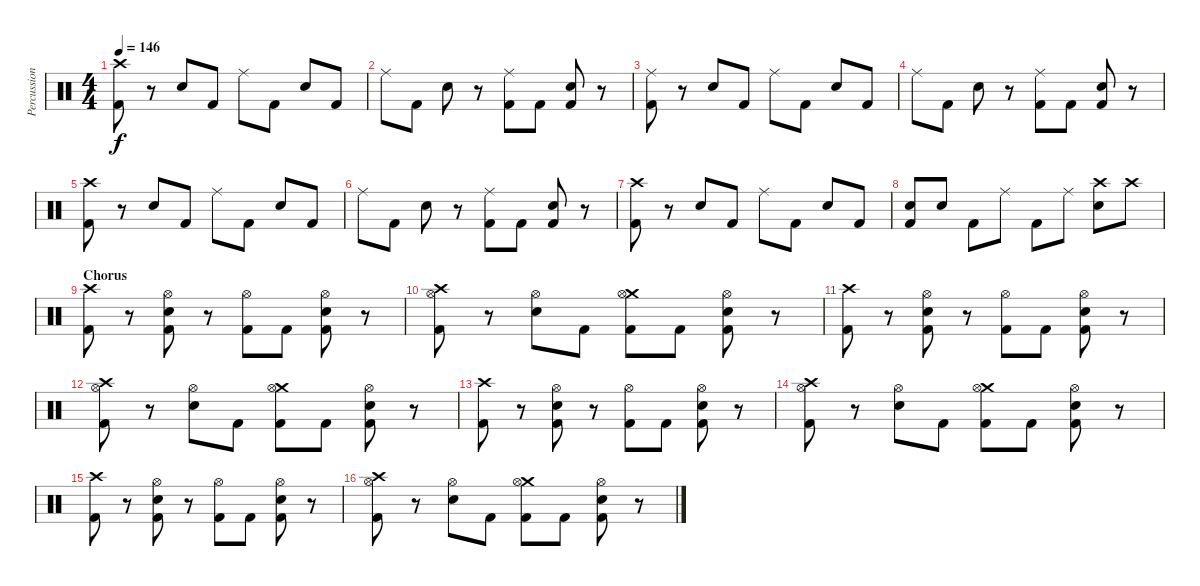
\track ("Percussion" "Percussion") {instrument percussion}
\staff {score}
\articulation defaults
\ts (4 4)
\tempo 146
\clef neutral
\ks c
("Crash high (hit)" "Kick (hit) 2").8{dy f} r.8 "Electric Snare (hit)".8 "Kick (hit) 2".8 "Ride (middle)".8 "Kick (hit) 2".8 "Electric Snare (hit)".8 "Kick (hit) 2".8 |
"Ride (middle)".8 "Kick (hit) 2".8 "Electric Snare (hit)".8 r.8 ("Ride (middle)" "Kick (hit) 2").8 "Kick (hit) 2".8 ("Electric Snare (hit)" "Kick (hit) 2").8 r.8 |
("Ride (middle)" "Kick (hit) 2").8 r.8 "Electric Snare (hit)".8 "Kick (hit) 2".8 "Ride (middle)".8 "Kick (hit) 2".8 "Electric Snare (hit)".8 "Kick (hit) 2".8 |
"Ride (middle)".8 "Kick (hit) 2".8 "Electric Snare (hit)".8 r.8 ("Ride (middle)" "Kick (hit) 2").8 "Kick (hit) 2".8 ("Electric Snare (hit)" "Kick (hit) 2").8 r.8 |
("Crash high (hit)" "Kick (hit) 2").8 r.8 "Electric Snare (hit)".8 "Kick (hit) 2".8 "Ride (middle)".8 "Kick (hit) 2".8 "Electric Snare (hit)".8 "Kick (hit) 2".8 |
"Ride (middle)".8 "Kick (hit) 2".8 "Electric Snare (hit)".8 r.8 ("Ride (middle)" "Kick (hit) 2").8 "Kick (hit) 2".8 ("Electric Snare (hit)" "Kick (hit) 2").8 r.8 |
("Crash high (hit)" "Kick (hit) 2").8 r.8 "Electric Snare (hit)".8 "Kick (hit) 2".8 "Ride (middle)".8 "Kick (hit) 2".8 "Electric Snare (hit)".8 "Kick (hit) 2".8 |
("Electric Snare (hit)" "Kick (hit) 2").8 "Electric Snare (hit)".8 "Kick (hit) 2".8 "Ride (middle)".8 "Kick (hit) 2".8 "Ride (middle)".8 ("Crash high (hit)" "Electric Snare (hit)").8 "Crash high (hit)".8 |
\section ("" "Chorus")
("Crash high (hit)" "Kick (hit) 2").8 r.8 ("Hi-Hat (open)" "Electric Snare (hit)" "Kick (hit) 2").8 r.8 ("Hi-Hat (open)" "Kick (hit) 2").8 "Kick (hit) 2".8 ("Hi-Hat (open)" "Electric Snare (hit)" "Kick (hit) 2").8 r.8 |
("Crash high (hit)" "Hi-Hat (open)" "Kick (hit) 2").8 r.8 ("Hi-Hat (open)" "Electric Snare (hit)").8 "Kick (hit) 2".8 ("Crash medium (hit)" "Hi-Hat (open)" "Kick (hit) 2").8 "Kick (hit) 2".8 ("Hi-Hat (open)" "Electric Snare (hit)" "Kick (hit) 2").8 r.8 |
("Crash high (hit)" "Kick (hit) 2").8 r.8 ("Hi-Hat (open)" "Electric Snare (hit)" "Kick (hit) 2").8 r.8 ("Hi-Hat (open)" "Kick (hit) 2").8 "Kick (hit) 2".8 ("Hi-Hat (open)" "Electric Snare (hit)" "Kick (hit) 2").8 r.8 |
("Crash high (hit)" "Hi-Hat (open)" "Kick (hit) 2").8 r.8 ("Hi-Hat (open)" "Electric Snare (hit)").8 "Kick (hit) 2".8 ("Crash medium (hit)" "Hi-Hat (open)" "Kick (hit) 2").8 "Kick (hit) 2".8 ("Hi-Hat (open)" "Electric Snare (hit)" "Kick (hit) 2").8 r.8 |
("Crash high (hit)" "Kick (hit) 2").8 r.8 ("Hi-Hat (open)" "Electric Snare (hit)" "Kick (hit) 2").8 r.8 ("Hi-Hat (open)" "Kick (hit) 2").8 "Kick (hit) 2".8 ("Hi-Hat (open)" "Electric Snare (hit)" "Kick (hit) 2").8 r.8 |
("Crash high (hit)" "Hi-Hat (open)" "Kick (hit) 2").8 r.8 ("Hi-Hat (open)" "Electric Snare (hit)").8 "Kick (hit) 2".8 ("Crash medium (hit)" "Hi-Hat (open)" "Kick (hit) 2").8 "Kick (hit) 2".8 ("Hi-Hat (open)" "Electric Snare (hit)" "Kick (hit) 2").8 r.8 |
("Crash high (hit)" "Kick (hit) 2").8 r.8 ("Hi-Hat (open)" "Electric Snare (hit)" "Kick (hit) 2").8 r.8 ("Hi-Hat (open)" "Kick (hit) 2").8 "Kick (hit) 2".8 ("Hi-Hat (open)" "Electric Snare (hit)" "Kick (hit) 2").8 r.8 |
("Crash high (hit)" "Hi-Hat (open)" "Kick (hit) 2").8 r.8 ("Hi-Hat (open)" "Electric Snare (hit)").8 "Kick (hit) 2".8 ("Crash medium (hit)" "Hi-Hat (open)" "Kick (hit) 2").8 "Kick (hit) 2".8 ("Hi-Hat (open)" "Electric Snare (hit)" "Kick (hit) 2").8 r.8
